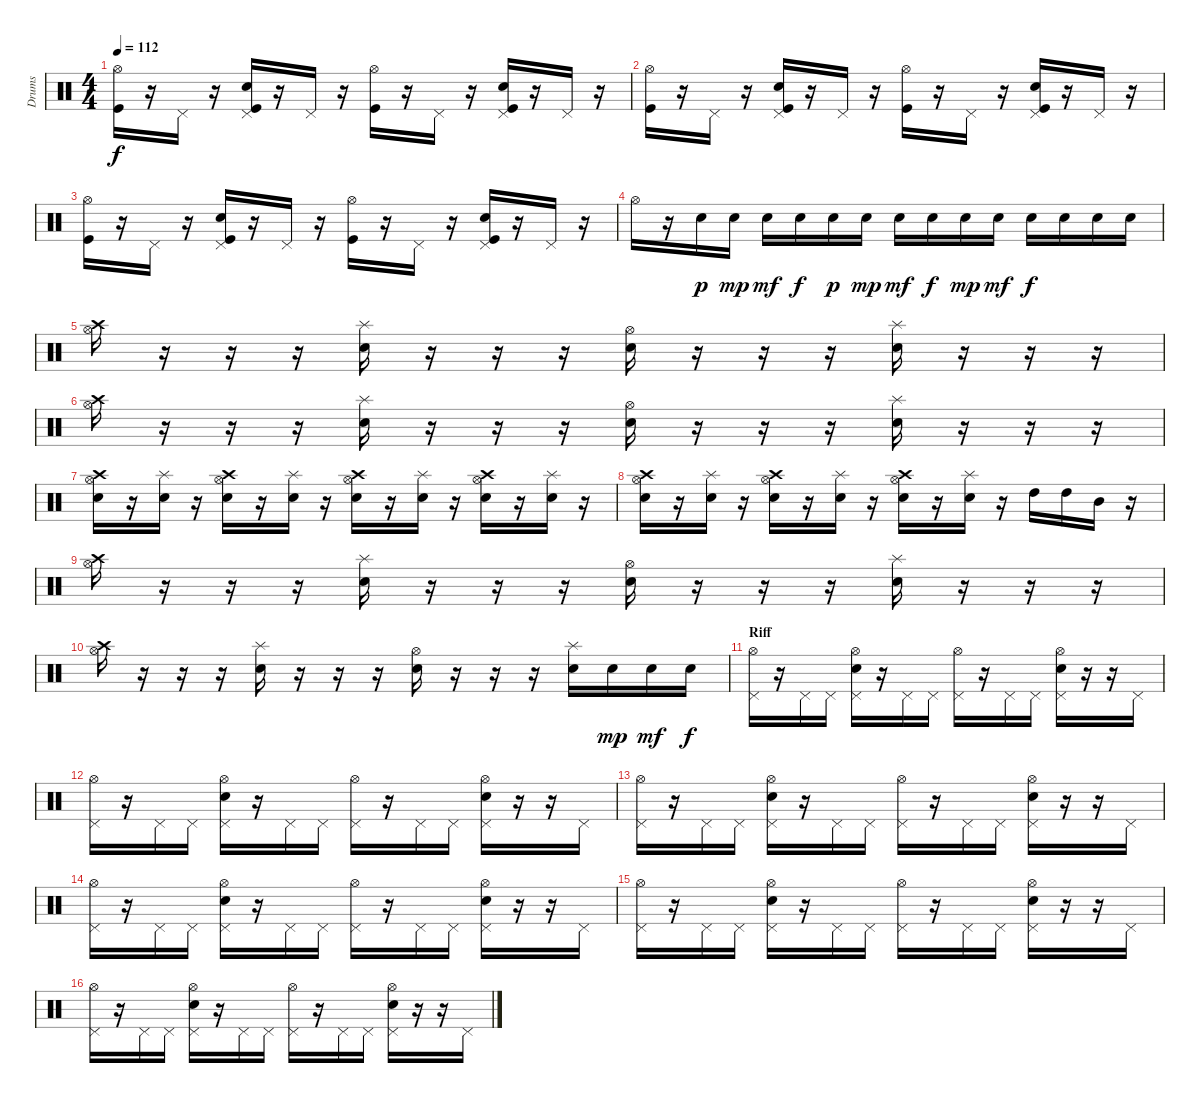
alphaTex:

\track ("Drums" "Drums") {instrument percussion}
\staff {score}
\articulation defaults
\ts (4 4)
\tempo 112
\clef neutral
\ks c
("Hi-Hat (open)" "Kick (hit)").16{dy f} r.16 "Pedal Hi-Hat (hit)".16 r.16 ("Pedal Hi-Hat (hit)" "Electric Snare (hit)" "Kick (hit)").16 r.16 "Pedal Hi-Hat (hit)".16 r.16 ("Hi-Hat (open)" "Kick (hit)").16 r.16 "Pedal Hi-Hat (hit)".16 r.16 ("Pedal Hi-Hat (hit)" "Electric Snare (hit)" "Kick (hit)").16 r.16 "Pedal Hi-Hat (hit)".16 r.16 |
("Hi-Hat (open)" "Kick (hit)").16 r.16 "Pedal Hi-Hat (hit)".16 r.16 ("Pedal Hi-Hat (hit)" "Electric Snare (hit)" "Kick (hit)").16 r.16 "Pedal Hi-Hat (hit)".16 r.16 ("Hi-Hat (open)" "Kick (hit)").16 r.16 "Pedal Hi-Hat (hit)".16 r.16 ("Pedal Hi-Hat (hit)" "Electric Snare (hit)" "Kick (hit)").16 r.16 "Pedal Hi-Hat (hit)".16 r.16 |
("Hi-Hat (open)" "Kick (hit)").16 r.16 "Pedal Hi-Hat (hit)".16 r.16 ("Pedal Hi-Hat (hit)" "Electric Snare (hit)" "Kick (hit)").16 r.16 "Pedal Hi-Hat (hit)".16 r.16 ("Hi-Hat (open)" "Kick (hit)").16 r.16 "Pedal Hi-Hat (hit)".16 r.16 ("Pedal Hi-Hat (hit)" "Electric Snare (hit)" "Kick (hit)").16 r.16 "Pedal Hi-Hat (hit)".16 r.16 |
"Hi-Hat (open)".16 r.16 "Electric Snare (hit)".16{dy p} "Electric Snare (hit)".16{dy mp} "Electric Snare (hit)".16{dy mf} "Electric Snare (hit)".16{dy f} "Electric Snare (hit)".16{dy p} "Electric Snare (hit)".16{dy mp} "Electric Snare (hit)".16{dy mf} "Electric Snare (hit)".16{dy f} "Electric Snare (hit)".16{dy mp} "Electric Snare (hit)".16{dy mf} "Electric Snare (hit)".16{dy f} "Electric Snare (hit)".16 "Electric Snare (hit)".16 "Electric Snare (hit)".16 |
("Hi-Hat (open)" "Crash high (hit)").16 r.16 r.16 r.16 ("Electric Snare (hit)" "Splash (hit)").16 r.16 r.16 r.16 ("Hi-Hat (open)" "Electric Snare (hit)").16 r.16 r.16 r.16 ("Electric Snare (hit)" "Splash (hit)").16 r.16 r.16 r.16 |
("Hi-Hat (open)" "Crash high (hit)").16 r.16 r.16 r.16 ("Electric Snare (hit)" "Splash (hit)").16 r.16 r.16 r.16 ("Hi-Hat (open)" "Electric Snare (hit)").16 r.16 r.16 r.16 ("Electric Snare (hit)" "Splash (hit)").16 r.16 r.16 r.16 |
("Hi-Hat (open)" "Electric Snare (hit)" "Crash high (hit)").16 r.16 ("Electric Snare (hit)" "Splash (hit)").16 r.16 ("Hi-Hat (open)" "Electric Snare (hit)" "Crash high (hit)").16 r.16 ("Electric Snare (hit)" "Splash (hit)").16 r.16 ("Hi-Hat (open)" "Electric Snare (hit)" "Crash high (hit)").16 r.16 ("Electric Snare (hit)" "Splash (hit)").16 r.16 ("Hi-Hat (open)" "Electric Snare (hit)" "Crash high (hit)").16 r.16 ("Electric Snare (hit)" "Splash (hit)").16 r.16 |
("Hi-Hat (open)" "Electric Snare (hit)" "Crash high (hit)").16 r.16 ("Electric Snare (hit)" "Splash (hit)").16 r.16 ("Hi-Hat (open)" "Electric Snare (hit)" "Crash high (hit)").16 r.16 ("Electric Snare (hit)" "Splash (hit)").16 r.16 ("Hi-Hat (open)" "Electric Snare (hit)" "Crash high (hit)").16 r.16 ("Electric Snare (hit)" "Splash (hit)").16 r.16 "High Tom (hit)".16 "High Tom (hit)".16 "Mid Tom (hit)".16 r.16 |
("Hi-Hat (open)" "Crash high (hit)").16 r.16 r.16 r.16 ("Electric Snare (hit)" "Splash (hit)").16 r.16 r.16 r.16 ("Hi-Hat (open)" "Electric Snare (hit)").16 r.16 r.16 r.16 ("Electric Snare (hit)" "Splash (hit)").16 r.16 r.16 r.16 |
("Hi-Hat (open)" "Crash high (hit)").16 r.16 r.16 r.16 ("Electric Snare (hit)" "Splash (hit)").16 r.16 r.16 r.16 ("Hi-Hat (open)" "Electric Snare (hit)").16 r.16 r.16 r.16 ("Electric Snare (hit)" "Splash (hit)").16 "Electric Snare (hit)".16{dy mp} "Electric Snare (hit)".16{dy mf} "Electric Snare (hit)".16{dy f} |
\section ("" "Riff")
("Pedal Hi-Hat (hit)" "Hi-Hat (open)").16 r.16 "Pedal Hi-Hat (hit)".16 "Pedal Hi-Hat (hit)".16 ("Pedal Hi-Hat (hit)" "Hi-Hat (open)" "Electric Snare (hit)").16 r.16 "Pedal Hi-Hat (hit)".16 "Pedal Hi-Hat (hit)".16 ("Pedal Hi-Hat (hit)" "Hi-Hat (open)").16 r.16 "Pedal Hi-Hat (hit)".16 "Pedal Hi-Hat (hit)".16 ("Pedal Hi-Hat (hit)" "Hi-Hat (open)" "Electric Snare (hit)").16 r.16 r.16 "Pedal Hi-Hat (hit)".16 |
("Pedal Hi-Hat (hit)" "Hi-Hat (open)").16 r.16 "Pedal Hi-Hat (hit)".16 "Pedal Hi-Hat (hit)".16 ("Pedal Hi-Hat (hit)" "Hi-Hat (open)" "Electric Snare (hit)").16 r.16 "Pedal Hi-Hat (hit)".16 "Pedal Hi-Hat (hit)".16 ("Pedal Hi-Hat (hit)" "Hi-Hat (open)").16 r.16 "Pedal Hi-Hat (hit)".16 "Pedal Hi-Hat (hit)".16 ("Pedal Hi-Hat (hit)" "Hi-Hat (open)" "Electric Snare (hit)").16 r.16 r.16 "Pedal Hi-Hat (hit)".16 |
("Pedal Hi-Hat (hit)" "Hi-Hat (open)").16 r.16 "Pedal Hi-Hat (hit)".16 "Pedal Hi-Hat (hit)".16 ("Pedal Hi-Hat (hit)" "Hi-Hat (open)" "Electric Snare (hit)").16 r.16 "Pedal Hi-Hat (hit)".16 "Pedal Hi-Hat (hit)".16 ("Pedal Hi-Hat (hit)" "Hi-Hat (open)").16 r.16 "Pedal Hi-Hat (hit)".16 "Pedal Hi-Hat (hit)".16 ("Pedal Hi-Hat (hit)" "Hi-Hat (open)" "Electric Snare (hit)").16 r.16 r.16 "Pedal Hi-Hat (hit)".16 |
("Pedal Hi-Hat (hit)" "Hi-Hat (open)").16 r.16 "Pedal Hi-Hat (hit)".16 "Pedal Hi-Hat (hit)".16 ("Pedal Hi-Hat (hit)" "Hi-Hat (open)" "Electric Snare (hit)").16 r.16 "Pedal Hi-Hat (hit)".16 "Pedal Hi-Hat (hit)".16 ("Pedal Hi-Hat (hit)" "Hi-Hat (open)").16 r.16 "Pedal Hi-Hat (hit)".16 "Pedal Hi-Hat (hit)".16 ("Pedal Hi-Hat (hit)" "Hi-Hat (open)" "Electric Snare (hit)").16 r.16 r.16 "Pedal Hi-Hat (hit)".16 |
("Pedal Hi-Hat (hit)" "Hi-Hat (open)").16 r.16 "Pedal Hi-Hat (hit)".16 "Pedal Hi-Hat (hit)".16 ("Pedal Hi-Hat (hit)" "Hi-Hat (open)" "Electric Snare (hit)").16 r.16 "Pedal Hi-Hat (hit)".16 "Pedal Hi-Hat (hit)".16 ("Pedal Hi-Hat (hit)" "Hi-Hat (open)").16 r.16 "Pedal Hi-Hat (hit)".16 "Pedal Hi-Hat (hit)".16 ("Pedal Hi-Hat (hit)" "Hi-Hat (open)" "Electric Snare (hit)").16 r.16 r.16 "Pedal Hi-Hat (hit)".16 |
("Pedal Hi-Hat (hit)" "Hi-Hat (open)").16 r.16 "Pedal Hi-Hat (hit)".16 "Pedal Hi-Hat (hit)".16 ("Pedal Hi-Hat (hit)" "Hi-Hat (open)" "Electric Snare (hit)").16 r.16 "Pedal Hi-Hat (hit)".16 "Pedal Hi-Hat (hit)".16 ("Pedal Hi-Hat (hit)" "Hi-Hat (open)").16 r.16 "Pedal Hi-Hat (hit)".16 "Pedal Hi-Hat (hit)".16 ("Pedal Hi-Hat (hit)" "Hi-Hat (open)" "Electric Snare (hit)").16 r.16 r.16 "Pedal Hi-Hat (hit)".16
